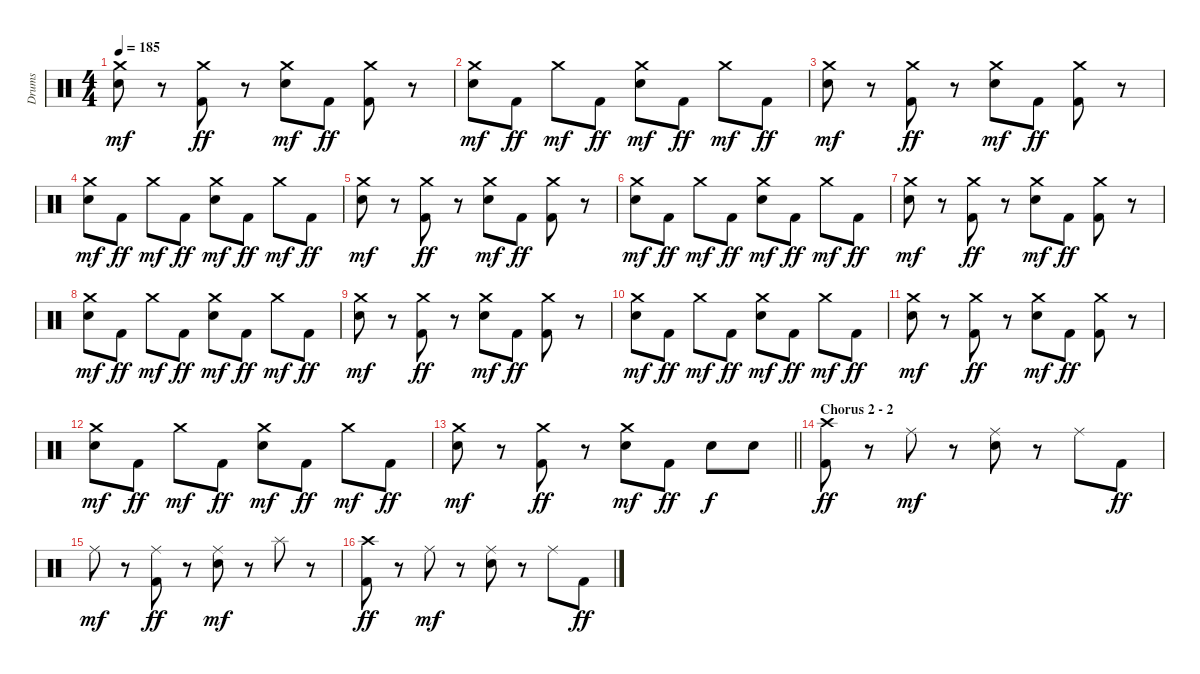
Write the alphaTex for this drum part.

\track ("Drums" "Drums") {instrument percussion}
\staff {score}
\articulation defaults
\ts (4 4)
\tempo 185
\clef neutral
\ks c
("Crash medium (hit)" "Electric Snare (hit)").8{dy mf} r.8 ("Crash medium (hit)" "Kick (hit) 2").8{dy ff} r.8 ("Crash medium (hit)" "Electric Snare (hit)").8{dy mf} "Kick (hit) 2".8{dy ff} ("Crash medium (hit)" "Kick (hit) 2").8 r.8 |
("Crash medium (hit)" "Electric Snare (hit)").8{dy mf} "Kick (hit) 2".8{dy ff} "Crash medium (hit)".8{dy mf} "Kick (hit) 2".8{dy ff} ("Crash medium (hit)" "Electric Snare (hit)").8{dy mf} "Kick (hit) 2".8{dy ff} "Crash medium (hit)".8{dy mf} "Kick (hit) 2".8{dy ff} |
("Crash medium (hit)" "Electric Snare (hit)").8{dy mf} r.8 ("Crash medium (hit)" "Kick (hit) 2").8{dy ff} r.8 ("Crash medium (hit)" "Electric Snare (hit)").8{dy mf} "Kick (hit) 2".8{dy ff} ("Crash medium (hit)" "Kick (hit) 2").8 r.8 |
("Crash medium (hit)" "Electric Snare (hit)").8{dy mf} "Kick (hit) 2".8{dy ff} "Crash medium (hit)".8{dy mf} "Kick (hit) 2".8{dy ff} ("Crash medium (hit)" "Electric Snare (hit)").8{dy mf} "Kick (hit) 2".8{dy ff} "Crash medium (hit)".8{dy mf} "Kick (hit) 2".8{dy ff} |
("Crash medium (hit)" "Electric Snare (hit)").8{dy mf} r.8 ("Crash medium (hit)" "Kick (hit) 2").8{dy ff} r.8 ("Crash medium (hit)" "Electric Snare (hit)").8{dy mf} "Kick (hit) 2".8{dy ff} ("Crash medium (hit)" "Kick (hit) 2").8 r.8 |
("Crash medium (hit)" "Electric Snare (hit)").8{dy mf} "Kick (hit) 2".8{dy ff} "Crash medium (hit)".8{dy mf} "Kick (hit) 2".8{dy ff} ("Crash medium (hit)" "Electric Snare (hit)").8{dy mf} "Kick (hit) 2".8{dy ff} "Crash medium (hit)".8{dy mf} "Kick (hit) 2".8{dy ff} |
("Crash medium (hit)" "Electric Snare (hit)").8{dy mf} r.8 ("Crash medium (hit)" "Kick (hit) 2").8{dy ff} r.8 ("Crash medium (hit)" "Electric Snare (hit)").8{dy mf} "Kick (hit) 2".8{dy ff} ("Crash medium (hit)" "Kick (hit) 2").8 r.8 |
("Crash medium (hit)" "Electric Snare (hit)").8{dy mf} "Kick (hit) 2".8{dy ff} "Crash medium (hit)".8{dy mf} "Kick (hit) 2".8{dy ff} ("Crash medium (hit)" "Electric Snare (hit)").8{dy mf} "Kick (hit) 2".8{dy ff} "Crash medium (hit)".8{dy mf} "Kick (hit) 2".8{dy ff} |
("Crash medium (hit)" "Electric Snare (hit)").8{dy mf} r.8 ("Crash medium (hit)" "Kick (hit) 2").8{dy ff} r.8 ("Crash medium (hit)" "Electric Snare (hit)").8{dy mf} "Kick (hit) 2".8{dy ff} ("Crash medium (hit)" "Kick (hit) 2").8 r.8 |
("Crash medium (hit)" "Electric Snare (hit)").8{dy mf} "Kick (hit) 2".8{dy ff} "Crash medium (hit)".8{dy mf} "Kick (hit) 2".8{dy ff} ("Crash medium (hit)" "Electric Snare (hit)").8{dy mf} "Kick (hit) 2".8{dy ff} "Crash medium (hit)".8{dy mf} "Kick (hit) 2".8{dy ff} |
("Crash medium (hit)" "Electric Snare (hit)").8{dy mf} r.8 ("Crash medium (hit)" "Kick (hit) 2").8{dy ff} r.8 ("Crash medium (hit)" "Electric Snare (hit)").8{dy mf} "Kick (hit) 2".8{dy ff} ("Crash medium (hit)" "Kick (hit) 2").8 r.8 |
("Crash medium (hit)" "Electric Snare (hit)").8{dy mf} "Kick (hit) 2".8{dy ff} "Crash medium (hit)".8{dy mf} "Kick (hit) 2".8{dy ff} ("Crash medium (hit)" "Electric Snare (hit)").8{dy mf} "Kick (hit) 2".8{dy ff} "Crash medium (hit)".8{dy mf} "Kick (hit) 2".8{dy ff} |
\barLineRight lightlight
("Crash medium (hit)" "Electric Snare (hit)").8{dy mf} r.8 ("Crash medium (hit)" "Kick (hit) 2").8{dy ff} r.8 ("Crash medium (hit)" "Electric Snare (hit)").8{dy mf} "Kick (hit) 2".8{dy ff} "Electric Snare (hit)".8{dy f} "Electric Snare (hit)".8 |
\section ("" "Chorus 2 - 2")
("Crash high (hit)" "Kick (hit) 2").8{dy ff} r.8 "Ride (middle)".8{dy mf} r.8 ("Ride (middle)" "Electric Snare (hit)").8 r.8 "Ride (middle)".8 "Kick (hit) 2".8{dy ff} |
"Ride (middle)".8{dy mf} r.8 ("Ride (middle)" "Kick (hit) 2").8{dy ff} r.8 ("Ride (middle)" "Electric Snare (hit)").8{dy mf} r.8 "Splash (hit)".8 r.8 |
("Crash high (hit)" "Kick (hit) 2").8{dy ff} r.8 "Ride (middle)".8{dy mf} r.8 ("Ride (middle)" "Electric Snare (hit)").8 r.8 "Ride (middle)".8 "Kick (hit) 2".8{dy ff}
